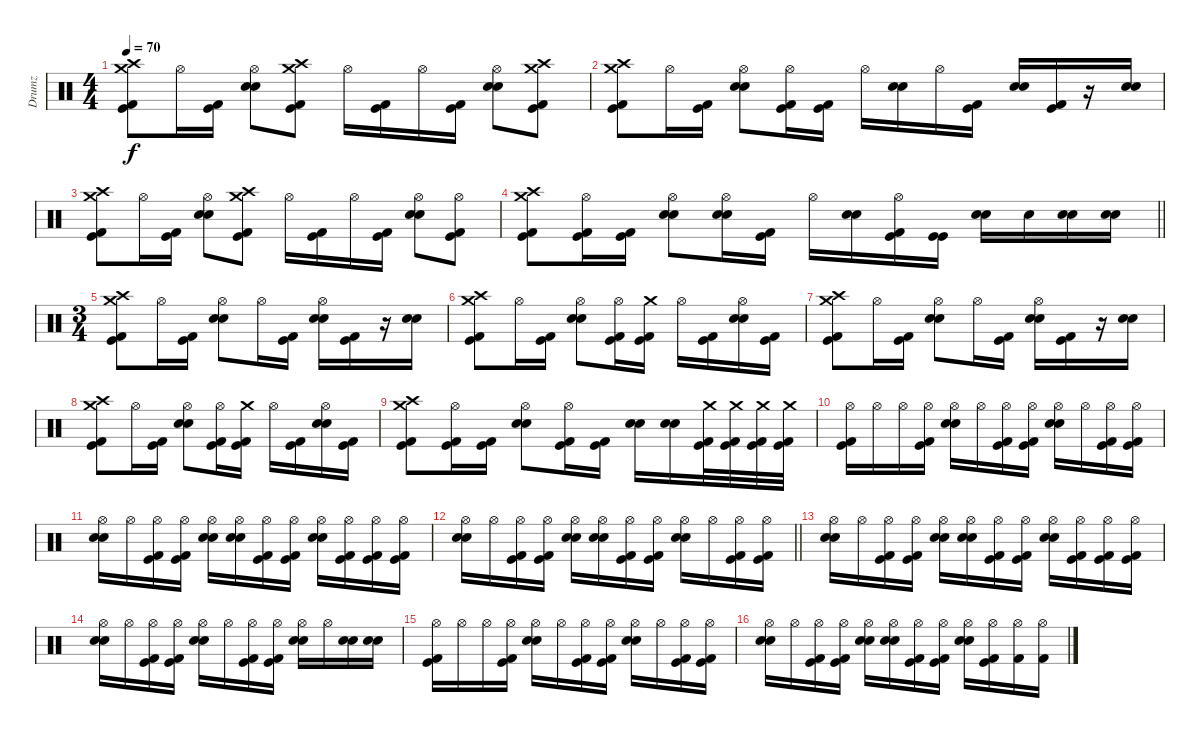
\track ("Drumz" "Drumz") {instrument percussion}
\staff {score}
\articulation defaults
\ts (4 4)
\tempo 70
\clef neutral
\ks c
("Crash medium (hit)" "Crash high (hit)" "Kick (hit)" "Kick (hit) 2").8{dy f} "Hi-Hat (open)".16 ("Kick (hit) 2" "Kick (hit)").16 ("Hi-Hat (open)" "Electric Snare (hit)" "Electric Snare (hit)").8 ("Crash medium (hit)" "Crash high (hit)" "Kick (hit) 2" "Kick (hit)").8 "Hi-Hat (open)".16 ("Kick (hit)" "Kick (hit) 2").16 "Hi-Hat (open)".16 ("Kick (hit)" "Kick (hit) 2").16 ("Hi-Hat (open)" "Electric Snare (hit)" "Electric Snare (hit)").8 ("Crash medium (hit)" "Crash high (hit)" "Kick (hit)" "Kick (hit) 2").8 |
("Crash high (hit)" "Crash medium (hit)" "Kick (hit)" "Kick (hit) 2").8 "Hi-Hat (open)".16 ("Kick (hit)" "Kick (hit) 2").16 ("Hi-Hat (open)" "Electric Snare (hit)" "Electric Snare (hit)").8 ("Hi-Hat (open)" "Kick (hit)" "Kick (hit) 2").16 ("Kick (hit)" "Kick (hit) 2").16 "Hi-Hat (open)".16 ("Electric Snare (hit)" "Electric Snare (hit)").16 "Hi-Hat (open)".16 ("Kick (hit) 2" "Kick (hit)").16 ("Electric Snare (hit)" "Electric Snare (hit)").16 ("Kick (hit)" "Kick (hit) 2").16 r.16 ("Electric Snare (hit)" "Electric Snare (hit)").16 |
("Crash medium (hit)" "Crash high (hit)" "Kick (hit)" "Kick (hit) 2").8 "Hi-Hat (open)".16 ("Kick (hit) 2" "Kick (hit)").16 ("Hi-Hat (open)" "Electric Snare (hit)" "Electric Snare (hit)").8 ("Crash medium (hit)" "Crash high (hit)" "Kick (hit) 2" "Kick (hit)").8 "Hi-Hat (open)".16 ("Kick (hit)" "Kick (hit) 2").16 "Hi-Hat (open)".16 ("Kick (hit)" "Kick (hit) 2").16 ("Hi-Hat (open)" "Electric Snare (hit)" "Electric Snare (hit)").8 ("Hi-Hat (open)" "Kick (hit)" "Kick (hit) 2").8 |
\barLineRight lightlight
("Crash high (hit)" "Crash medium (hit)" "Kick (hit)" "Kick (hit) 2").8 ("Hi-Hat (open)" "Kick (hit)" "Kick (hit) 2").16 ("Kick (hit)" "Kick (hit) 2").16 ("Hi-Hat (open)" "Electric Snare (hit)" "Electric Snare (hit)").8 ("Hi-Hat (open)" "Electric Snare (hit)" "Electric Snare (hit)").16 ("Kick (hit) 2" "Kick (hit)").16 "Hi-Hat (open)".16 ("Electric Snare (hit)" "Electric Snare (hit)").16 ("Hi-Hat (open)" "Kick (hit)" "Kick (hit) 2").16 ("Kick (hit)" "Kick (hit)").16 ("Snare (hit) 2" "Electric Snare (hit)").16 "Electric Snare (hit)".16 ("Snare (hit) 2" "Electric Snare (hit)").16 ("Snare (hit) 2" "Electric Snare (hit)").16 |
\ts (3 4)
("Crash medium (hit)" "Crash high (hit)" "Kick (hit) 2" "Kick (hit)").8 "Hi-Hat (open)".16 ("Kick (hit) 2" "Kick (hit)").16 ("Hi-Hat (open)" "Electric Snare (hit)" "Electric Snare (hit)").8 "Hi-Hat (open)".16 ("Kick (hit)" "Kick (hit) 2").16 ("Hi-Hat (open)" "Electric Snare (hit)" "Electric Snare (hit)").16 ("Kick (hit) 2" "Kick (hit)").16 r.16 ("Electric Snare (hit)" "Electric Snare (hit)").16 |
("Crash medium (hit)" "Crash high (hit)" "Kick (hit) 2" "Kick (hit)").8 "Hi-Hat (open)".16 ("Kick (hit) 2" "Kick (hit)").16 ("Hi-Hat (open)" "Electric Snare (hit)" "Electric Snare (hit)").8 ("Hi-Hat (open)" "Kick (hit)" "Kick (hit) 2").16 ("Crash medium (hit)" "Kick (hit) 2" "Kick (hit)").16 "Hi-Hat (open)".16 ("Kick (hit) 2" "Kick (hit)").16 ("Hi-Hat (open)" "Electric Snare (hit)" "Electric Snare (hit)").16 ("Kick (hit) 2" "Kick (hit)").16 |
("Crash medium (hit)" "Crash high (hit)" "Kick (hit) 2" "Kick (hit)").8 "Hi-Hat (open)".16 ("Kick (hit) 2" "Kick (hit)").16 ("Hi-Hat (open)" "Electric Snare (hit)" "Electric Snare (hit)").8 "Hi-Hat (open)".16 ("Kick (hit)" "Kick (hit) 2").16 ("Hi-Hat (open)" "Electric Snare (hit)" "Electric Snare (hit)").16 ("Kick (hit) 2" "Kick (hit)").16 r.16 ("Electric Snare (hit)" "Electric Snare (hit)").16 |
("Crash high (hit)" "Crash medium (hit)" "Kick (hit)" "Kick (hit) 2").8 "Hi-Hat (open)".16 ("Kick (hit) 2" "Kick (hit)").16 ("Hi-Hat (open)" "Electric Snare (hit)" "Electric Snare (hit)").8 ("Hi-Hat (open)" "Kick (hit)" "Kick (hit) 2").16 ("Crash medium (hit)" "Kick (hit)" "Kick (hit) 2").16 "Hi-Hat (open)".16 ("Kick (hit) 2" "Kick (hit)").16 ("Hi-Hat (open)" "Electric Snare (hit)" "Electric Snare (hit)").16 ("Kick (hit)" "Kick (hit) 2").16 |
("Crash medium (hit)" "Crash high (hit)" "Kick (hit) 2" "Kick (hit)").8 ("Hi-Hat (open)" "Kick (hit) 2" "Kick (hit)").16 ("Kick (hit) 2" "Kick (hit)").16 ("Hi-Hat (open)" "Electric Snare (hit)" "Electric Snare (hit)").8 ("Hi-Hat (open)" "Kick (hit)" "Kick (hit) 2").16 ("Kick (hit)" "Kick (hit) 2").16 ("Electric Snare (hit)" "Electric Snare (hit)").16 ("Electric Snare (hit)" "Electric Snare (hit)").16 ("Crash medium (hit)" "Kick (hit) 2" "Kick (hit)").32 ("Crash medium (hit)" "Kick (hit) 2" "Kick (hit)").32 ("Crash medium (hit)" "Kick (hit) 2" "Kick (hit)").32 ("Crash medium (hit)" "Kick (hit) 2" "Kick (hit)").32 |
("Hi-Hat (open)" "Kick (hit) 2" "Kick (hit)").16 "Hi-Hat (open)".16 "Hi-Hat (open)".16 ("Hi-Hat (open)" "Kick (hit) 2" "Kick (hit)").16 ("Hi-Hat (open)" "Electric Snare (hit)" "Electric Snare (hit)").16 "Hi-Hat (open)".16 ("Hi-Hat (open)" "Kick (hit)" "Kick (hit) 2").16 ("Hi-Hat (open)" "Kick (hit)" "Kick (hit) 2").16 ("Hi-Hat (open)" "Electric Snare (hit)" "Electric Snare (hit)").16 "Hi-Hat (open)".16 ("Hi-Hat (open)" "Kick (hit)" "Kick (hit) 2").16 ("Hi-Hat (open)" "Kick (hit)" "Kick (hit) 2").16 |
("Hi-Hat (open)" "Electric Snare (hit)" "Electric Snare (hit)").16 "Hi-Hat (open)".16 ("Hi-Hat (open)" "Kick (hit)" "Kick (hit) 2").16 ("Hi-Hat (open)" "Kick (hit)" "Kick (hit) 2").16 ("Hi-Hat (open)" "Electric Snare (hit)" "Electric Snare (hit)").16 ("Hi-Hat (open)" "Electric Snare (hit)" "Electric Snare (hit)").16 ("Hi-Hat (open)" "Kick (hit)" "Kick (hit) 2").16 ("Hi-Hat (open)" "Kick (hit)" "Kick (hit) 2").16 ("Hi-Hat (open)" "Electric Snare (hit)" "Electric Snare (hit)").16 ("Hi-Hat (open)" "Kick (hit)" "Kick (hit) 2").16 ("Hi-Hat (open)" "Kick (hit)" "Kick (hit) 2").16 ("Hi-Hat (open)" "Kick (hit) 2" "Kick (hit)").16 |
\barLineRight lightlight
("Hi-Hat (open)" "Electric Snare (hit)" "Electric Snare (hit)").16 "Hi-Hat (open)".16 ("Hi-Hat (open)" "Kick (hit)" "Kick (hit) 2").16 ("Hi-Hat (open)" "Kick (hit)" "Kick (hit) 2").16 ("Hi-Hat (open)" "Electric Snare (hit)" "Electric Snare (hit)").16 ("Hi-Hat (open)" "Electric Snare (hit)" "Electric Snare (hit)").16 ("Hi-Hat (open)" "Kick (hit)" "Kick (hit) 2").16 ("Hi-Hat (open)" "Kick (hit)" "Kick (hit) 2").16 ("Hi-Hat (open)" "Electric Snare (hit)" "Electric Snare (hit)").16 "Hi-Hat (open)".16 ("Hi-Hat (open)" "Kick (hit) 2" "Kick (hit)").16 ("Hi-Hat (open)" "Kick (hit)" "Kick (hit) 2").16 |
("Hi-Hat (open)" "Electric Snare (hit)" "Electric Snare (hit)").16 "Hi-Hat (open)".16 ("Hi-Hat (open)" "Kick (hit)" "Kick (hit) 2").16 ("Hi-Hat (open)" "Kick (hit)" "Kick (hit) 2").16 ("Hi-Hat (open)" "Electric Snare (hit)" "Electric Snare (hit)").16 ("Hi-Hat (open)" "Electric Snare (hit)" "Electric Snare (hit)").16 ("Hi-Hat (open)" "Kick (hit)" "Kick (hit) 2").16 ("Hi-Hat (open)" "Kick (hit)" "Kick (hit) 2").16 ("Hi-Hat (open)" "Electric Snare (hit)" "Electric Snare (hit)").16 ("Hi-Hat (open)" "Kick (hit)" "Kick (hit) 2").16 ("Hi-Hat (open)" "Kick (hit) 2" "Kick (hit)").16 ("Hi-Hat (open)" "Kick (hit) 2" "Kick (hit)").16 |
("Hi-Hat (open)" "Electric Snare (hit)" "Electric Snare (hit)").16 "Hi-Hat (open)".16 ("Hi-Hat (open)" "Kick (hit) 2" "Kick (hit)").16 ("Hi-Hat (open)" "Kick (hit) 2" "Kick (hit)").16 ("Hi-Hat (open)" "Electric Snare (hit)" "Electric Snare (hit)").16 "Hi-Hat (open)".16 ("Hi-Hat (open)" "Kick (hit) 2" "Kick (hit)").16 ("Hi-Hat (open)" "Kick (hit) 2" "Kick (hit)").16 ("Hi-Hat (open)" "Electric Snare (hit)" "Electric Snare (hit)").16 "Hi-Hat (open)".16 ("Electric Snare (hit)" "Electric Snare (hit)").16 ("Electric Snare (hit)" "Electric Snare (hit)").16 |
("Hi-Hat (open)" "Kick (hit) 2" "Kick (hit)").16 "Hi-Hat (open)".16 "Hi-Hat (open)".16 ("Hi-Hat (open)" "Kick (hit) 2" "Kick (hit)").16 ("Hi-Hat (open)" "Electric Snare (hit)" "Electric Snare (hit)").16 "Hi-Hat (open)".16 ("Hi-Hat (open)" "Kick (hit) 2" "Kick (hit)").16 ("Hi-Hat (open)" "Kick (hit) 2" "Kick (hit)").16 ("Hi-Hat (open)" "Electric Snare (hit)" "Electric Snare (hit)").16 "Hi-Hat (open)".16 ("Hi-Hat (open)" "Kick (hit) 2" "Kick (hit)").16 ("Hi-Hat (open)" "Kick (hit) 2" "Kick (hit)").16 |
("Hi-Hat (open)" "Electric Snare (hit)" "Electric Snare (hit)").16 "Hi-Hat (open)".16 ("Hi-Hat (open)" "Kick (hit) 2" "Kick (hit)").16 ("Hi-Hat (open)" "Kick (hit) 2" "Kick (hit)").16 ("Hi-Hat (open)" "Electric Snare (hit)" "Electric Snare (hit)").16 ("Hi-Hat (open)" "Electric Snare (hit)" "Electric Snare (hit)").16 ("Hi-Hat (open)" "Kick (hit) 2" "Kick (hit)").16 ("Hi-Hat (open)" "Kick (hit) 2" "Kick (hit)").16 ("Hi-Hat (open)" "Electric Snare (hit)" "Electric Snare (hit)").16 ("Hi-Hat (open)" "Kick (hit) 2" "Kick (hit)").16 ("Hi-Hat (open)" "Kick (hit) 2").16 ("Hi-Hat (open)" "Kick (hit) 2").16
